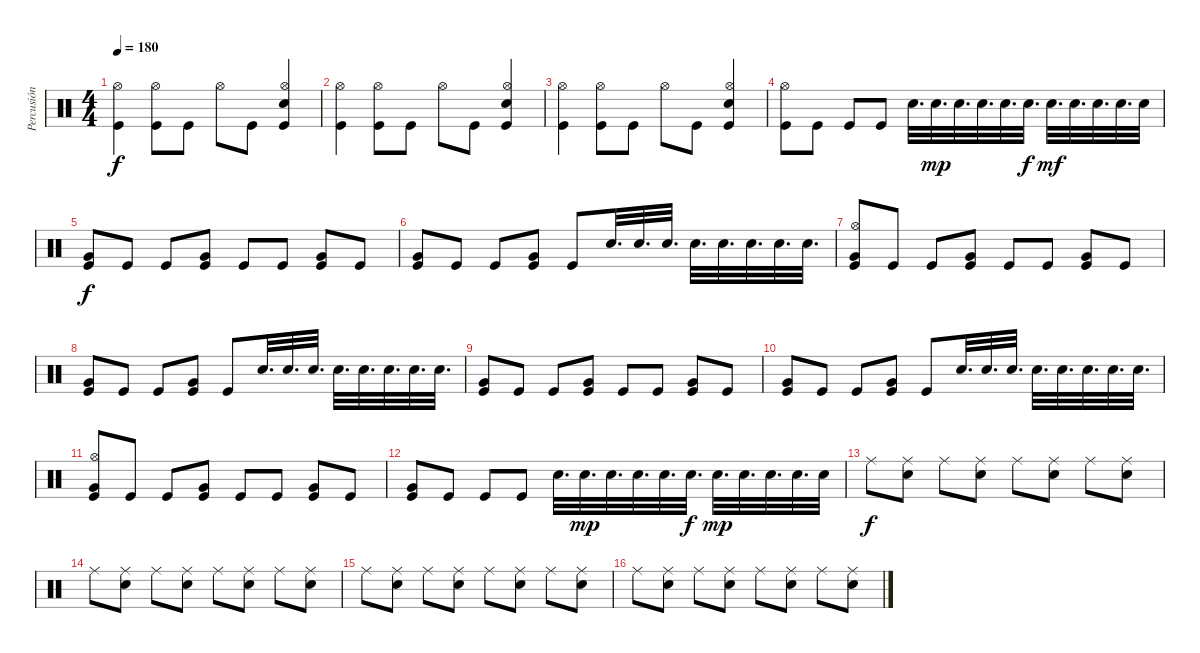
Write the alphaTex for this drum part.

\track ("Percusión" "Percusión") {instrument percussion}
\staff {score}
\articulation defaults
\ts (4 4)
\tempo 180
\clef neutral
\ks c
("Kick (hit)" "Hi-Hat (open)").4{dy f} ("Kick (hit)" "Hi-Hat (open)").8 "Kick (hit)".8 "Hi-Hat (open)".8 "Kick (hit)".8 ("Kick (hit)" "Snare (hit) 2" "Hi-Hat (open)").4 |
("Kick (hit)" "Hi-Hat (open)").4 ("Kick (hit)" "Hi-Hat (open)").8 "Kick (hit)".8 "Hi-Hat (open)".8 "Kick (hit)".8 ("Kick (hit)" "Snare (hit) 2" "Hi-Hat (open)").4 |
("Kick (hit)" "Hi-Hat (open)").4 ("Kick (hit)" "Hi-Hat (open)").8 "Kick (hit)".8 "Hi-Hat (open)".8 "Kick (hit)".8 ("Kick (hit)" "Snare (hit) 2" "Hi-Hat (open)").4 |
("Kick (hit)" "Hi-Hat (open)").8 "Kick (hit)".8 "Kick (hit)".8 "Kick (hit)".8 "Snare (hit) 2".32{d} "Snare (hit) 2".32{d dy mp} "Snare (hit) 2".32{d} "Snare (hit) 2".32{d} "Snare (hit) 2".32{d} "Snare (hit) 2".32{d dy f} "Snare (hit) 2".32{d dy mf} "Snare (hit) 2".32{d} "Snare (hit) 2".32{d} "Snare (hit) 2".32{d} "Snare (hit) 2".32 |
("Kick (hit)" "Very Low Tom (hit)").8{dy f} "Kick (hit)".8 "Kick (hit)".8 ("Kick (hit)" "Very Low Tom (hit)").8 "Kick (hit)".8 "Kick (hit)".8 ("Kick (hit)" "Very Low Tom (hit)").8 "Kick (hit)".8 |
("Kick (hit)" "Very Low Tom (hit)").8 "Kick (hit)".8 "Kick (hit)".8 ("Kick (hit)" "Very Low Tom (hit)").8 "Kick (hit)".8 "Snare (hit) 2".32{d} "Snare (hit) 2".32{d} "Snare (hit) 2".32{d} "Snare (hit) 2".32{d} "Snare (hit) 2".32{d} "Snare (hit) 2".32{d} "Snare (hit) 2".32{d} "Snare (hit) 2".32{d} |
("Kick (hit)" "Very Low Tom (hit)" "Hi-Hat (open)").8 "Kick (hit)".8 "Kick (hit)".8 ("Kick (hit)" "Very Low Tom (hit)").8 "Kick (hit)".8 "Kick (hit)".8 ("Kick (hit)" "Very Low Tom (hit)").8 "Kick (hit)".8 |
("Kick (hit)" "Very Low Tom (hit)").8 "Kick (hit)".8 "Kick (hit)".8 ("Kick (hit)" "Very Low Tom (hit)").8 "Kick (hit)".8 "Snare (hit) 2".32{d} "Snare (hit) 2".32{d} "Snare (hit) 2".32{d} "Snare (hit) 2".32{d} "Snare (hit) 2".32{d} "Snare (hit) 2".32{d} "Snare (hit) 2".32{d} "Snare (hit) 2".32{d} |
("Kick (hit)" "Very Low Tom (hit)").8 "Kick (hit)".8 "Kick (hit)".8 ("Kick (hit)" "Very Low Tom (hit)").8 "Kick (hit)".8 "Kick (hit)".8 ("Kick (hit)" "Very Low Tom (hit)").8 "Kick (hit)".8 |
("Kick (hit)" "Very Low Tom (hit)").8 "Kick (hit)".8 "Kick (hit)".8 ("Kick (hit)" "Very Low Tom (hit)").8 "Kick (hit)".8 "Snare (hit) 2".32{d} "Snare (hit) 2".32{d} "Snare (hit) 2".32{d} "Snare (hit) 2".32{d} "Snare (hit) 2".32{d} "Snare (hit) 2".32{d} "Snare (hit) 2".32{d} "Snare (hit) 2".32{d} |
("Kick (hit)" "Very Low Tom (hit)" "Hi-Hat (open)").8 "Kick (hit)".8 "Kick (hit)".8 ("Kick (hit)" "Very Low Tom (hit)").8 "Kick (hit)".8 "Kick (hit)".8 ("Kick (hit)" "Very Low Tom (hit)").8 "Kick (hit)".8 |
("Kick (hit)" "Very Low Tom (hit)").8 "Kick (hit)".8 "Kick (hit)".8 "Kick (hit)".8 "Snare (hit) 2".32{d} "Snare (hit) 2".32{d dy mp} "Snare (hit) 2".32{d} "Snare (hit) 2".32{d} "Snare (hit) 2".32{d} "Snare (hit) 2".32{d dy f} "Snare (hit) 2".32{d dy mp} "Snare (hit) 2".32{d} "Snare (hit) 2".32{d} "Snare (hit) 2".32{d} "Snare (hit) 2".32 |
"Ride (middle)".8{dy f} ("Ride (middle)" "Snare (hit) 2").8 "Ride (middle)".8 ("Ride (middle)" "Snare (hit) 2").8 "Ride (middle)".8 ("Ride (middle)" "Snare (hit) 2").8 "Ride (middle)".8 ("Ride (middle)" "Snare (hit) 2").8 |
"Ride (middle)".8 ("Ride (middle)" "Snare (hit) 2").8 "Ride (middle)".8 ("Ride (middle)" "Snare (hit) 2").8 "Ride (middle)".8 ("Ride (middle)" "Snare (hit) 2").8 "Ride (middle)".8 ("Ride (middle)" "Snare (hit) 2").8 |
"Ride (middle)".8 ("Ride (middle)" "Snare (hit) 2").8 "Ride (middle)".8 ("Ride (middle)" "Snare (hit) 2").8 "Ride (middle)".8 ("Ride (middle)" "Snare (hit) 2").8 "Ride (middle)".8 ("Ride (middle)" "Snare (hit) 2").8 |
"Ride (middle)".8 ("Ride (middle)" "Snare (hit) 2").8 "Ride (middle)".8 ("Ride (middle)" "Snare (hit) 2").8 "Ride (middle)".8 ("Ride (middle)" "Snare (hit) 2").8 "Ride (middle)".8 ("Ride (middle)" "Snare (hit) 2").8
